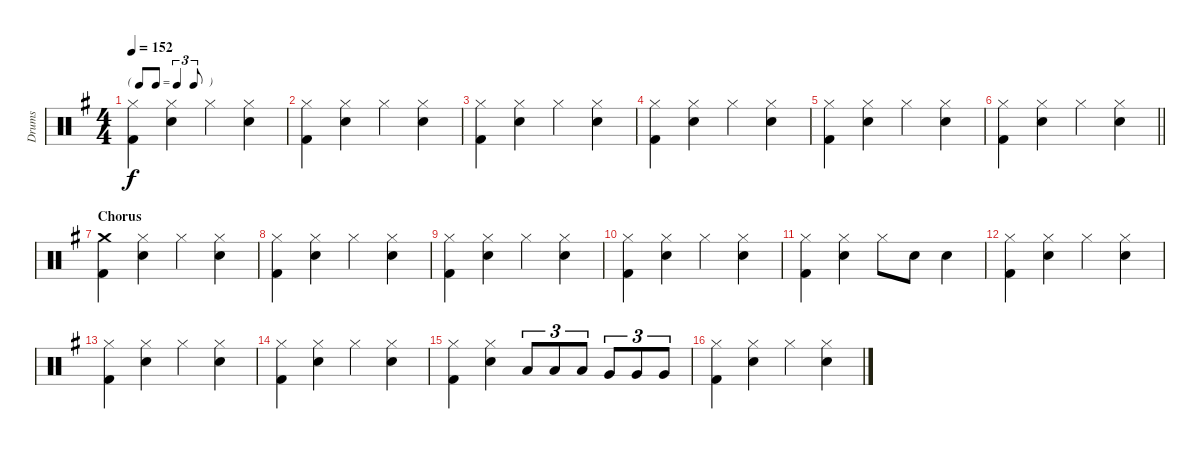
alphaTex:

\track ("Drums" "Drums") {instrument percussion}
\staff {score}
\articulation defaults
\ts (4 4)
\tf triplet8th
\tempo 152
\clef neutral
\ks g
("Hi-Hat (closed)" "Kick (hit) 2").4{dy f} ("Hi-Hat (closed)" "Snare (hit) 2").4 "Hi-Hat (closed)".4 ("Hi-Hat (closed)" "Snare (hit) 2").4 |
("Hi-Hat (closed)" "Kick (hit) 2").4 ("Hi-Hat (closed)" "Snare (hit) 2").4 "Hi-Hat (closed)".4 ("Hi-Hat (closed)" "Snare (hit) 2").4 |
("Hi-Hat (closed)" "Kick (hit) 2").4 ("Hi-Hat (closed)" "Snare (hit) 2").4 "Hi-Hat (closed)".4 ("Hi-Hat (closed)" "Snare (hit) 2").4 |
("Hi-Hat (closed)" "Kick (hit) 2").4 ("Hi-Hat (closed)" "Snare (hit) 2").4 "Hi-Hat (closed)".4 ("Hi-Hat (closed)" "Snare (hit) 2").4 |
("Hi-Hat (closed)" "Kick (hit) 2").4 ("Hi-Hat (closed)" "Snare (hit) 2").4 "Hi-Hat (closed)".4 ("Hi-Hat (closed)" "Snare (hit) 2").4 |
\barLineRight lightlight
("Hi-Hat (closed)" "Kick (hit) 2").4 ("Hi-Hat (closed)" "Snare (hit) 2").4 "Hi-Hat (closed)".4 ("Hi-Hat (closed)" "Snare (hit) 2").4 |
\section ("" "Chorus")
("Crash medium (hit)" "Kick (hit) 2").4 ("Hi-Hat (closed)" "Snare (hit) 2").4 "Hi-Hat (closed)".4 ("Hi-Hat (closed)" "Snare (hit) 2").4 |
("Hi-Hat (closed)" "Kick (hit) 2").4 ("Hi-Hat (closed)" "Snare (hit) 2").4 "Hi-Hat (closed)".4 ("Hi-Hat (closed)" "Snare (hit) 2").4 |
("Hi-Hat (closed)" "Kick (hit) 2").4 ("Hi-Hat (closed)" "Snare (hit) 2").4 "Hi-Hat (closed)".4 ("Hi-Hat (closed)" "Snare (hit) 2").4 |
("Hi-Hat (closed)" "Kick (hit) 2").4 ("Hi-Hat (closed)" "Snare (hit) 2").4 "Hi-Hat (closed)".4 ("Hi-Hat (closed)" "Snare (hit) 2").4 |
("Hi-Hat (closed)" "Kick (hit) 2").4 ("Hi-Hat (closed)" "Snare (hit) 2").4 "Hi-Hat (closed)".8 "Snare (hit) 2".8 "Snare (hit) 2".4 |
("Hi-Hat (closed)" "Kick (hit) 2").4 ("Hi-Hat (closed)" "Snare (hit) 2").4 "Hi-Hat (closed)".4 ("Hi-Hat (closed)" "Snare (hit) 2").4 |
("Hi-Hat (closed)" "Kick (hit) 2").4 ("Hi-Hat (closed)" "Snare (hit) 2").4 "Hi-Hat (closed)".4 ("Hi-Hat (closed)" "Snare (hit) 2").4 |
("Hi-Hat (closed)" "Kick (hit) 2").4 ("Hi-Hat (closed)" "Snare (hit) 2").4 "Hi-Hat (closed)".4 ("Hi-Hat (closed)" "Snare (hit) 2").4 |
("Hi-Hat (closed)" "Kick (hit) 2").4 ("Hi-Hat (closed)" "Snare (hit) 2").4 "Low Tom (hit)".8{tu (3 2)} "Low Tom (hit)".8{tu (3 2)} "Low Tom (hit)".8{tu (3 2)} "Very Low Tom (hit)".8{tu (3 2)} "Very Low Tom (hit)".8{tu (3 2)} "Very Low Tom (hit)".8{tu (3 2)} |
("Hi-Hat (closed)" "Kick (hit) 2").4 ("Hi-Hat (closed)" "Snare (hit) 2").4 "Hi-Hat (closed)".4 ("Hi-Hat (closed)" "Snare (hit) 2").4
